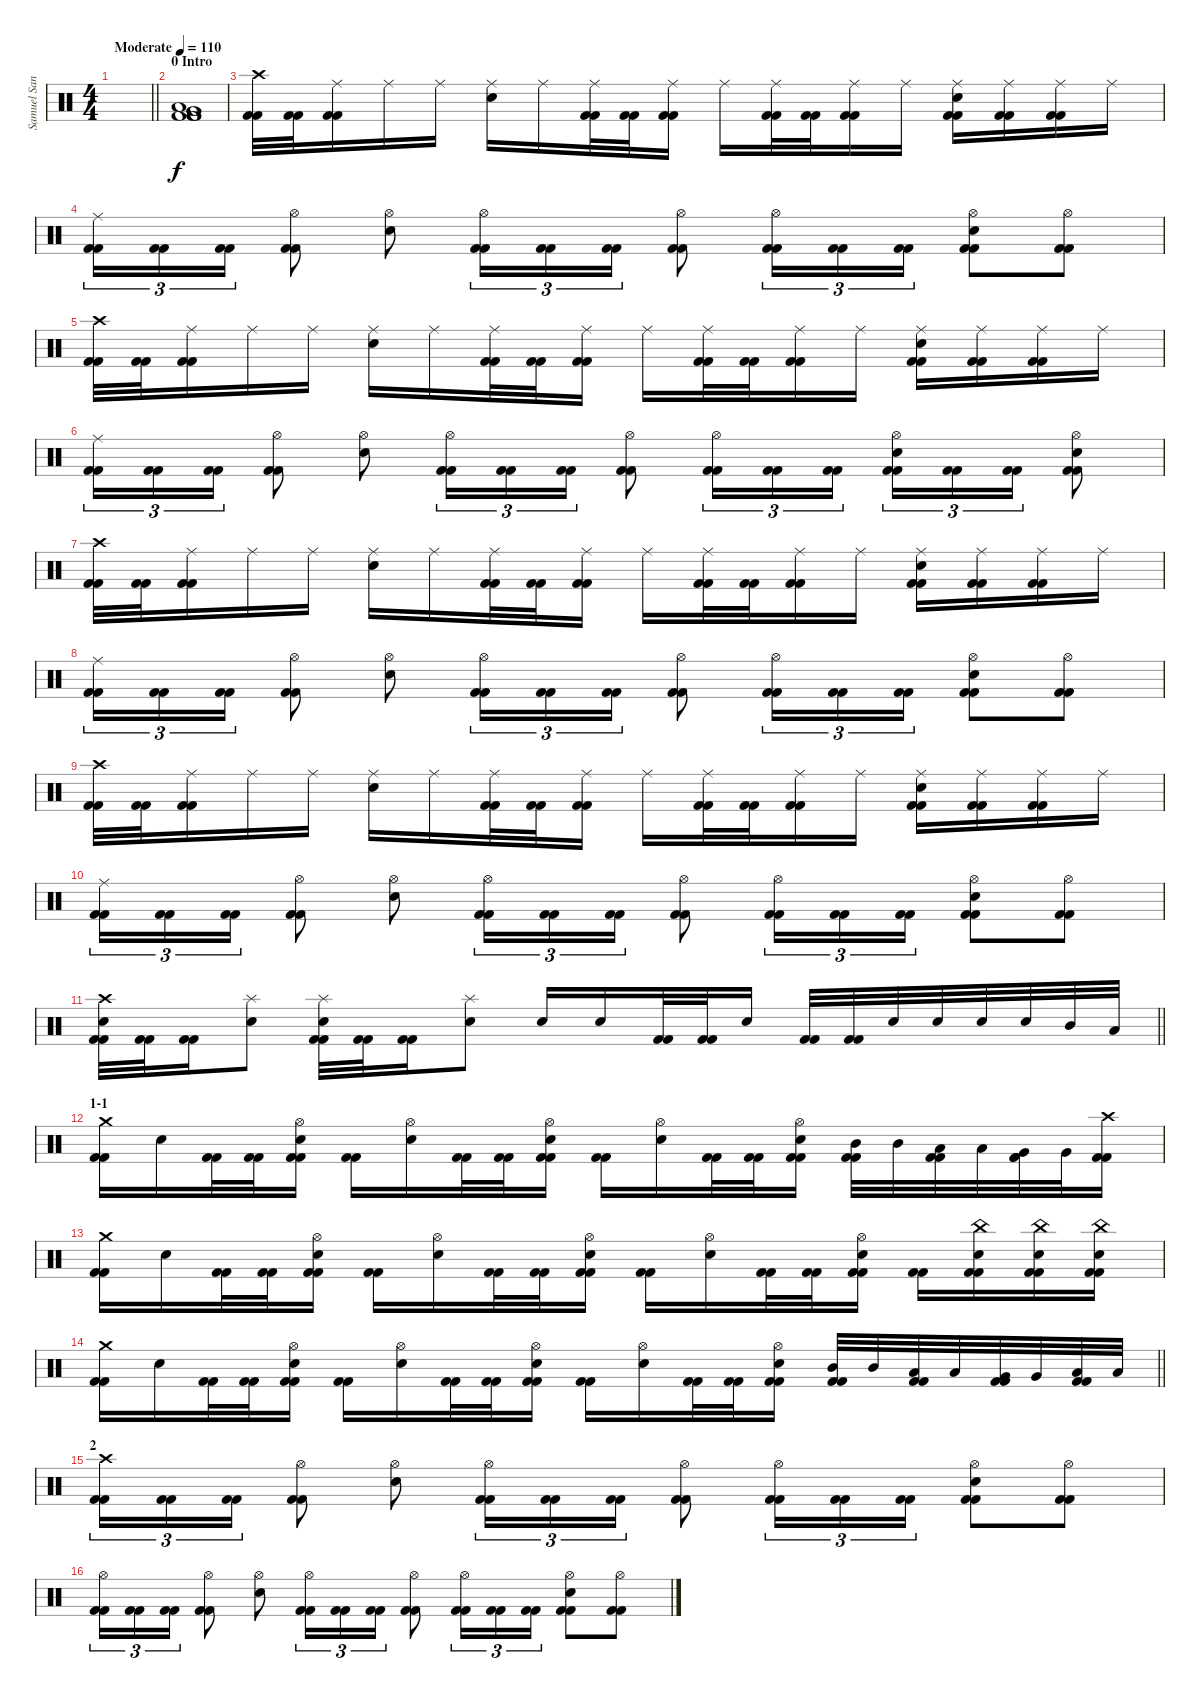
\track ("Samuel Santiago" "Samuel San") {instrument percussion}
\staff {score}
\articulation defaults
\ts (4 4)
\tempo (110 "Moderate")
\clef neutral
\barLineRight lightlight
\ks c
|
\section ("" "0 Intro")
("Kick (hit) 2" "Low Floor Tom (hit)" "Very Low Tom (hit)" "Very Low Tom (hit)" "Kick (hit) 2" "Kick (hit) 2").1 |
("Crash high (hit)" "Kick (hit) 2" "Kick (hit) 2").32{dy f} ("Kick (hit) 2" "Kick (hit) 2").32 ("Ride (middle)" "Kick (hit) 2" "Kick (hit) 2").16 "Ride (middle)".16 "Ride (middle)".16 ("Ride (middle)" "Electric Snare (hit)").16 "Ride (middle)".16 ("Ride (middle)" "Kick (hit) 2" "Kick (hit) 2").32 ("Kick (hit) 2" "Kick (hit) 2").32 ("Ride (middle)" "Kick (hit) 2" "Kick (hit) 2").16 "Ride (middle)".16 ("Ride (middle)" "Kick (hit) 2" "Kick (hit) 2").32 ("Kick (hit) 2" "Kick (hit) 2").32 ("Ride (middle)" "Kick (hit) 2" "Kick (hit) 2").16 "Ride (middle)".16 ("Ride (middle)" "Electric Snare (hit)" "Kick (hit) 2" "Kick (hit) 2").16 ("Ride (middle)" "Kick (hit) 2" "Kick (hit) 2").16 ("Ride (middle)" "Kick (hit) 2" "Kick (hit) 2").16 "Ride (middle)".16 |
("Ride (middle)" "Kick (hit) 2" "Kick (hit) 2").16{tu (3 2)} ("Kick (hit) 2" "Kick (hit) 2").16{tu (3 2)} ("Kick (hit) 2" "Kick (hit) 2").16{tu (3 2)} ("Hi-Hat (open)" "Kick (hit) 2" "Kick (hit) 2").8 ("Hi-Hat (open)" "Electric Snare (hit)").8 ("Hi-Hat (open)" "Kick (hit) 2" "Kick (hit) 2").16{tu (3 2)} ("Kick (hit) 2" "Kick (hit) 2").16{tu (3 2)} ("Kick (hit) 2" "Kick (hit) 2").16{tu (3 2)} ("Hi-Hat (open)" "Kick (hit) 2" "Kick (hit) 2").8 ("Hi-Hat (open)" "Kick (hit) 2" "Kick (hit) 2").16{tu (3 2)} ("Kick (hit) 2" "Kick (hit) 2").16{tu (3 2)} ("Kick (hit) 2" "Kick (hit) 2").16{tu (3 2)} ("Hi-Hat (open)" "Electric Snare (hit)" "Kick (hit) 2" "Kick (hit) 2").8 ("Hi-Hat (open)" "Kick (hit) 2" "Kick (hit) 2").8 |
("Crash high (hit)" "Kick (hit) 2" "Kick (hit) 2").32 ("Kick (hit) 2" "Kick (hit) 2").32 ("Ride (middle)" "Kick (hit) 2" "Kick (hit) 2").16 "Ride (middle)".16 "Ride (middle)".16 ("Ride (middle)" "Electric Snare (hit)").16 "Ride (middle)".16 ("Ride (middle)" "Kick (hit) 2" "Kick (hit) 2").32 ("Kick (hit) 2" "Kick (hit) 2").32 ("Ride (middle)" "Kick (hit) 2" "Kick (hit) 2").16 "Ride (middle)".16 ("Ride (middle)" "Kick (hit) 2" "Kick (hit) 2").32 ("Kick (hit) 2" "Kick (hit) 2").32 ("Ride (middle)" "Kick (hit) 2" "Kick (hit) 2").16 "Ride (middle)".16 ("Ride (middle)" "Electric Snare (hit)" "Kick (hit) 2" "Kick (hit) 2").16 ("Ride (middle)" "Kick (hit) 2" "Kick (hit) 2").16 ("Ride (middle)" "Kick (hit) 2" "Kick (hit) 2").16 "Ride (middle)".16 |
("Ride (middle)" "Kick (hit) 2" "Kick (hit) 2").16{tu (3 2)} ("Kick (hit) 2" "Kick (hit) 2").16{tu (3 2)} ("Kick (hit) 2" "Kick (hit) 2").16{tu (3 2)} ("Hi-Hat (open)" "Kick (hit) 2" "Kick (hit) 2").8 ("Hi-Hat (open)" "Electric Snare (hit)").8 ("Hi-Hat (open)" "Kick (hit) 2" "Kick (hit) 2").16{tu (3 2)} ("Kick (hit) 2" "Kick (hit) 2").16{tu (3 2)} ("Kick (hit) 2" "Kick (hit) 2").16{tu (3 2)} ("Hi-Hat (open)" "Kick (hit) 2" "Kick (hit) 2").8 ("Hi-Hat (open)" "Kick (hit) 2" "Kick (hit) 2").16{tu (3 2)} ("Kick (hit) 2" "Kick (hit) 2").16{tu (3 2)} ("Kick (hit) 2" "Kick (hit) 2").16{tu (3 2)} ("Hi-Hat (open)" "Electric Snare (hit)" "Kick (hit) 2" "Kick (hit) 2").16{tu (3 2)} ("Kick (hit) 2" "Kick (hit) 2").16{tu (3 2)} ("Kick (hit) 2" "Kick (hit) 2").16{tu (3 2)} ("Hi-Hat (open)" "Electric Snare (hit)" "Kick (hit) 2" "Kick (hit) 2").8 |
("Crash high (hit)" "Kick (hit) 2" "Kick (hit) 2").32 ("Kick (hit) 2" "Kick (hit) 2").32 ("Ride (middle)" "Kick (hit) 2" "Kick (hit) 2").16 "Ride (middle)".16 "Ride (middle)".16 ("Ride (middle)" "Electric Snare (hit)").16 "Ride (middle)".16 ("Ride (middle)" "Kick (hit) 2" "Kick (hit) 2").32 ("Kick (hit) 2" "Kick (hit) 2").32 ("Ride (middle)" "Kick (hit) 2" "Kick (hit) 2").16 "Ride (middle)".16 ("Ride (middle)" "Kick (hit) 2" "Kick (hit) 2").32 ("Kick (hit) 2" "Kick (hit) 2").32 ("Ride (middle)" "Kick (hit) 2" "Kick (hit) 2").16 "Ride (middle)".16 ("Ride (middle)" "Electric Snare (hit)" "Kick (hit) 2" "Kick (hit) 2").16 ("Ride (middle)" "Kick (hit) 2" "Kick (hit) 2").16 ("Ride (middle)" "Kick (hit) 2" "Kick (hit) 2").16 "Ride (middle)".16 |
("Ride (middle)" "Kick (hit) 2" "Kick (hit) 2").16{tu (3 2)} ("Kick (hit) 2" "Kick (hit) 2").16{tu (3 2)} ("Kick (hit) 2" "Kick (hit) 2").16{tu (3 2)} ("Hi-Hat (open)" "Kick (hit) 2" "Kick (hit) 2").8 ("Hi-Hat (open)" "Electric Snare (hit)").8 ("Hi-Hat (open)" "Kick (hit) 2" "Kick (hit) 2").16{tu (3 2)} ("Kick (hit) 2" "Kick (hit) 2").16{tu (3 2)} ("Kick (hit) 2" "Kick (hit) 2").16{tu (3 2)} ("Hi-Hat (open)" "Kick (hit) 2" "Kick (hit) 2").8 ("Hi-Hat (open)" "Kick (hit) 2" "Kick (hit) 2").16{tu (3 2)} ("Kick (hit) 2" "Kick (hit) 2").16{tu (3 2)} ("Kick (hit) 2" "Kick (hit) 2").16{tu (3 2)} ("Hi-Hat (open)" "Electric Snare (hit)" "Kick (hit) 2" "Kick (hit) 2").8 ("Hi-Hat (open)" "Kick (hit) 2" "Kick (hit) 2").8 |
("Crash high (hit)" "Kick (hit) 2" "Kick (hit) 2").32 ("Kick (hit) 2" "Kick (hit) 2").32 ("Ride (middle)" "Kick (hit) 2" "Kick (hit) 2").16 "Ride (middle)".16 "Ride (middle)".16 ("Ride (middle)" "Electric Snare (hit)").16 "Ride (middle)".16 ("Ride (middle)" "Kick (hit) 2" "Kick (hit) 2").32 ("Kick (hit) 2" "Kick (hit) 2").32 ("Ride (middle)" "Kick (hit) 2" "Kick (hit) 2").16 "Ride (middle)".16 ("Ride (middle)" "Kick (hit) 2" "Kick (hit) 2").32 ("Kick (hit) 2" "Kick (hit) 2").32 ("Ride (middle)" "Kick (hit) 2" "Kick (hit) 2").16 "Ride (middle)".16 ("Ride (middle)" "Electric Snare (hit)" "Kick (hit) 2" "Kick (hit) 2").16 ("Ride (middle)" "Kick (hit) 2" "Kick (hit) 2").16 ("Ride (middle)" "Kick (hit) 2" "Kick (hit) 2").16 "Ride (middle)".16 |
("Ride (middle)" "Kick (hit) 2" "Kick (hit) 2").16{tu (3 2)} ("Kick (hit) 2" "Kick (hit) 2").16{tu (3 2)} ("Kick (hit) 2" "Kick (hit) 2").16{tu (3 2)} ("Hi-Hat (open)" "Kick (hit) 2" "Kick (hit) 2").8 ("Hi-Hat (open)" "Electric Snare (hit)").8 ("Hi-Hat (open)" "Kick (hit) 2" "Kick (hit) 2").16{tu (3 2)} ("Kick (hit) 2" "Kick (hit) 2").16{tu (3 2)} ("Kick (hit) 2" "Kick (hit) 2").16{tu (3 2)} ("Hi-Hat (open)" "Kick (hit) 2" "Kick (hit) 2").8 ("Hi-Hat (open)" "Kick (hit) 2" "Kick (hit) 2").16{tu (3 2)} ("Kick (hit) 2" "Kick (hit) 2").16{tu (3 2)} ("Kick (hit) 2" "Kick (hit) 2").16{tu (3 2)} ("Hi-Hat (open)" "Electric Snare (hit)" "Kick (hit) 2" "Kick (hit) 2").8 ("Hi-Hat (open)" "Kick (hit) 2" "Kick (hit) 2").8 |
\barLineRight lightlight
("Crash high (hit)" "Electric Snare (hit)" "Kick (hit) 2" "Kick (hit) 2").32 ("Kick (hit) 2" "Kick (hit) 2").32 ("Kick (hit) 2" "Kick (hit) 2").16 ("Splash (hit)" "Electric Snare (hit)").8 ("Splash (hit)" "Electric Snare (hit)" "Kick (hit) 2" "Kick (hit) 2").32 ("Kick (hit) 2" "Kick (hit) 2").32 ("Kick (hit) 2" "Kick (hit) 2").16 ("Splash (hit)" "Electric Snare (hit)").8 "Electric Snare (hit)".16 "Electric Snare (hit)".16 ("Kick (hit) 2" "Kick (hit) 2").32 ("Kick (hit) 2" "Kick (hit) 2").32 "Electric Snare (hit)".16 ("Kick (hit) 2" "Kick (hit) 2").32 ("Kick (hit) 2" "Kick (hit) 2").32 "Electric Snare (hit)".32 "Electric Snare (hit)".32 "Electric Snare (hit)".32 "Electric Snare (hit)".32 "Mid Tom (hit)".32 "Low Tom (hit)".32 |
\section ("" "1-1")
("Crash medium (hit)" "Kick (hit) 2" "Kick (hit) 2").16 "Electric Snare (hit)".16 ("Kick (hit) 2" "Kick (hit) 2").32 ("Kick (hit) 2" "Kick (hit) 2").32 ("Hi-Hat (open)" "Electric Snare (hit)" "Kick (hit) 2" "Kick (hit) 2").16 ("Kick (hit) 2" "Kick (hit) 2").16 ("Hi-Hat (open)" "Electric Snare (hit)").16 ("Kick (hit) 2" "Kick (hit) 2").32 ("Kick (hit) 2" "Kick (hit) 2").32 ("Hi-Hat (open)" "Electric Snare (hit)" "Kick (hit) 2" "Kick (hit) 2").16 ("Kick (hit) 2" "Kick (hit) 2").16 ("Hi-Hat (open)" "Electric Snare (hit)").16 ("Kick (hit) 2" "Kick (hit) 2").32 ("Kick (hit) 2" "Kick (hit) 2").32 ("Hi-Hat (open)" "Electric Snare (hit)" "Kick (hit) 2" "Kick (hit) 2").16 ("Mid Tom (hit)" "Kick (hit) 2" "Kick (hit) 2").32 "Mid Tom (hit)".32 ("Low Tom (hit)" "Kick (hit) 2" "Kick (hit) 2").32 "Low Tom (hit)".32 ("Very Low Tom (hit)" "Kick (hit) 2" "Kick (hit) 2").32 "Very Low Tom (hit)".32 ("Crash high (hit)" "Kick (hit) 2" "Kick (hit) 2").16 |
("Crash medium (hit)" "Kick (hit) 2" "Kick (hit) 2").16 "Electric Snare (hit)".16 ("Kick (hit) 2" "Kick (hit) 2").32 ("Kick (hit) 2" "Kick (hit) 2").32 ("Hi-Hat (open)" "Electric Snare (hit)" "Kick (hit) 2" "Kick (hit) 2").16 ("Kick (hit) 2" "Kick (hit) 2").16 ("Hi-Hat (open)" "Electric Snare (hit)").16 ("Kick (hit) 2" "Kick (hit) 2").32 ("Kick (hit) 2" "Kick (hit) 2").32 ("Hi-Hat (open)" "Electric Snare (hit)" "Kick (hit) 2" "Kick (hit) 2").16 ("Kick (hit) 2" "Kick (hit) 2").16 ("Hi-Hat (open)" "Electric Snare (hit)").16 ("Kick (hit) 2" "Kick (hit) 2").32 ("Kick (hit) 2" "Kick (hit) 2").32 ("Hi-Hat (open)" "Electric Snare (hit)" "Kick (hit) 2" "Kick (hit) 2").16 ("Kick (hit) 2" "Kick (hit) 2").16 ("China (hit)" "Electric Snare (hit)" "Kick (hit) 2" "Kick (hit) 2").16 ("China (hit)" "Electric Snare (hit)" "Kick (hit) 2" "Kick (hit) 2").16 ("China (hit)" "Electric Snare (hit)" "Kick (hit) 2" "Kick (hit) 2").16 |
\barLineRight lightlight
("Crash medium (hit)" "Kick (hit) 2" "Kick (hit) 2").16 "Electric Snare (hit)".16 ("Kick (hit) 2" "Kick (hit) 2").32 ("Kick (hit) 2" "Kick (hit) 2").32 ("Hi-Hat (open)" "Electric Snare (hit)" "Kick (hit) 2" "Kick (hit) 2").16 ("Kick (hit) 2" "Kick (hit) 2").16 ("Hi-Hat (open)" "Electric Snare (hit)").16 ("Kick (hit) 2" "Kick (hit) 2").32 ("Kick (hit) 2" "Kick (hit) 2").32 ("Hi-Hat (open)" "Electric Snare (hit)" "Kick (hit) 2" "Kick (hit) 2").16 ("Kick (hit) 2" "Kick (hit) 2").16 ("Hi-Hat (open)" "Electric Snare (hit)").16 ("Kick (hit) 2" "Kick (hit) 2").32 ("Kick (hit) 2" "Kick (hit) 2").32 ("Hi-Hat (open)" "Electric Snare (hit)" "Kick (hit) 2" "Kick (hit) 2").16 ("Mid Tom (hit)" "Kick (hit) 2" "Kick (hit) 2").32 "Mid Tom (hit)".32 ("Low Tom (hit)" "Kick (hit) 2" "Kick (hit) 2").32 "Low Tom (hit)".32 ("Very Low Tom (hit)" "Kick (hit) 2" "Kick (hit) 2").32 "Very Low Tom (hit)".32 ("Low Floor Tom (hit)" "Kick (hit) 2" "Kick (hit) 2").32 "Low Floor Tom (hit)".32 |
\section ("" "2")
("Crash high (hit)" "Kick (hit) 2" "Kick (hit) 2").16{tu (3 2)} ("Kick (hit) 2" "Kick (hit) 2").16{tu (3 2)} ("Kick (hit) 2" "Kick (hit) 2").16{tu (3 2)} ("Hi-Hat (open)" "Kick (hit) 2" "Kick (hit) 2").8 ("Hi-Hat (open)" "Electric Snare (hit)").8 ("Hi-Hat (open)" "Kick (hit) 2" "Kick (hit) 2").16{tu (3 2)} ("Kick (hit) 2" "Kick (hit) 2").16{tu (3 2)} ("Kick (hit) 2" "Kick (hit) 2").16{tu (3 2)} ("Hi-Hat (open)" "Kick (hit) 2" "Kick (hit) 2").8 ("Hi-Hat (open)" "Kick (hit) 2" "Kick (hit) 2").16{tu (3 2)} ("Kick (hit) 2" "Kick (hit) 2").16{tu (3 2)} ("Kick (hit) 2" "Kick (hit) 2").16{tu (3 2)} ("Hi-Hat (open)" "Electric Snare (hit)" "Kick (hit) 2" "Kick (hit) 2").8 ("Hi-Hat (open)" "Kick (hit) 2" "Kick (hit) 2").8 |
("Hi-Hat (open)" "Kick (hit) 2" "Kick (hit) 2").16{tu (3 2)} ("Kick (hit) 2" "Kick (hit) 2").16{tu (3 2)} ("Kick (hit) 2" "Kick (hit) 2").16{tu (3 2)} ("Hi-Hat (open)" "Kick (hit) 2" "Kick (hit) 2").8 ("Hi-Hat (open)" "Electric Snare (hit)").8 ("Hi-Hat (open)" "Kick (hit) 2" "Kick (hit) 2").16{tu (3 2)} ("Kick (hit) 2" "Kick (hit) 2").16{tu (3 2)} ("Kick (hit) 2" "Kick (hit) 2").16{tu (3 2)} ("Hi-Hat (open)" "Kick (hit) 2" "Kick (hit) 2").8 ("Hi-Hat (open)" "Kick (hit) 2" "Kick (hit) 2").16{tu (3 2)} ("Kick (hit) 2" "Kick (hit) 2").16{tu (3 2)} ("Kick (hit) 2" "Kick (hit) 2").16{tu (3 2)} ("Hi-Hat (open)" "Electric Snare (hit)" "Kick (hit) 2" "Kick (hit) 2").8 ("Hi-Hat (open)" "Kick (hit) 2" "Kick (hit) 2").8
